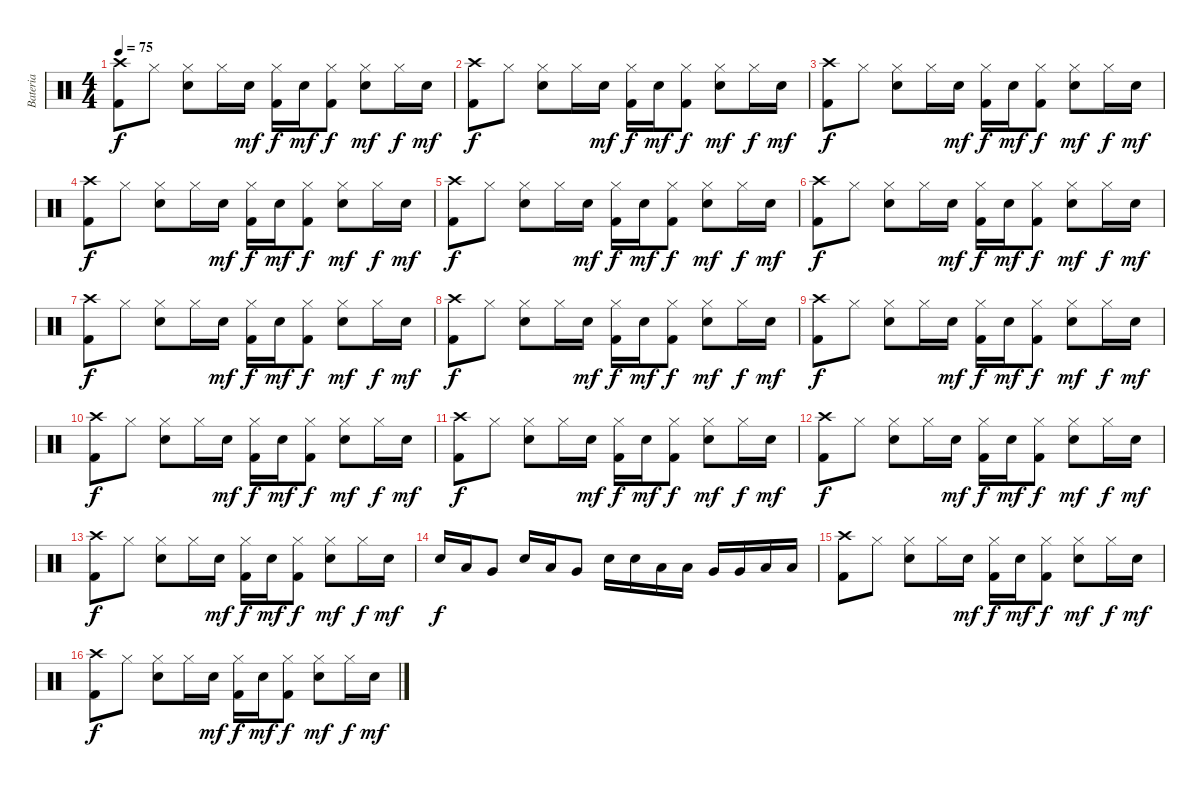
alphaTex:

\track ("Bateria" "Bateria") {instrument percussion}
\staff {score}
\articulation defaults
\ts (4 4)
\tempo 75
\clef neutral
\ks c
("Crash high (hit)" "Kick (hit) 2").8{dy f} "Hi-Hat (closed)".8 ("Hi-Hat (closed)" "Snare (hit) 2").8 "Hi-Hat (closed)".16 "Snare (hit) 2".16{dy mf} ("Hi-Hat (closed)" "Kick (hit) 2").16{dy f} "Snare (hit) 2".16{dy mf} ("Hi-Hat (closed)" "Kick (hit) 2").8{dy f} ("Hi-Hat (closed)" "Snare (hit) 2").8{dy mf} "Hi-Hat (closed)".16{dy f} "Snare (hit) 2".16{dy mf} |
("Crash high (hit)" "Kick (hit) 2").8{dy f} "Hi-Hat (closed)".8 ("Hi-Hat (closed)" "Snare (hit) 2").8 "Hi-Hat (closed)".16 "Snare (hit) 2".16{dy mf} ("Hi-Hat (closed)" "Kick (hit) 2").16{dy f} "Snare (hit) 2".16{dy mf} ("Hi-Hat (closed)" "Kick (hit) 2").8{dy f} ("Hi-Hat (closed)" "Snare (hit) 2").8{dy mf} "Hi-Hat (closed)".16{dy f} "Snare (hit) 2".16{dy mf} |
("Crash high (hit)" "Kick (hit) 2").8{dy f} "Hi-Hat (closed)".8 ("Hi-Hat (closed)" "Snare (hit) 2").8 "Hi-Hat (closed)".16 "Snare (hit) 2".16{dy mf} ("Hi-Hat (closed)" "Kick (hit) 2").16{dy f} "Snare (hit) 2".16{dy mf} ("Hi-Hat (closed)" "Kick (hit) 2").8{dy f} ("Hi-Hat (closed)" "Snare (hit) 2").8{dy mf} "Hi-Hat (closed)".16{dy f} "Snare (hit) 2".16{dy mf} |
("Crash high (hit)" "Kick (hit) 2").8{dy f} "Hi-Hat (closed)".8 ("Hi-Hat (closed)" "Snare (hit) 2").8 "Hi-Hat (closed)".16 "Snare (hit) 2".16{dy mf} ("Hi-Hat (closed)" "Kick (hit) 2").16{dy f} "Snare (hit) 2".16{dy mf} ("Hi-Hat (closed)" "Kick (hit) 2").8{dy f} ("Hi-Hat (closed)" "Snare (hit) 2").8{dy mf} "Hi-Hat (closed)".16{dy f} "Snare (hit) 2".16{dy mf} |
("Crash high (hit)" "Kick (hit) 2").8{dy f} "Hi-Hat (closed)".8 ("Hi-Hat (closed)" "Snare (hit) 2").8 "Hi-Hat (closed)".16 "Snare (hit) 2".16{dy mf} ("Hi-Hat (closed)" "Kick (hit) 2").16{dy f} "Snare (hit) 2".16{dy mf} ("Hi-Hat (closed)" "Kick (hit) 2").8{dy f} ("Hi-Hat (closed)" "Snare (hit) 2").8{dy mf} "Hi-Hat (closed)".16{dy f} "Snare (hit) 2".16{dy mf} |
("Crash high (hit)" "Kick (hit) 2").8{dy f} "Hi-Hat (closed)".8 ("Hi-Hat (closed)" "Snare (hit) 2").8 "Hi-Hat (closed)".16 "Snare (hit) 2".16{dy mf} ("Hi-Hat (closed)" "Kick (hit) 2").16{dy f} "Snare (hit) 2".16{dy mf} ("Hi-Hat (closed)" "Kick (hit) 2").8{dy f} ("Hi-Hat (closed)" "Snare (hit) 2").8{dy mf} "Hi-Hat (closed)".16{dy f} "Snare (hit) 2".16{dy mf} |
("Crash high (hit)" "Kick (hit) 2").8{dy f} "Hi-Hat (closed)".8 ("Hi-Hat (closed)" "Snare (hit) 2").8 "Hi-Hat (closed)".16 "Snare (hit) 2".16{dy mf} ("Hi-Hat (closed)" "Kick (hit) 2").16{dy f} "Snare (hit) 2".16{dy mf} ("Hi-Hat (closed)" "Kick (hit) 2").8{dy f} ("Hi-Hat (closed)" "Snare (hit) 2").8{dy mf} "Hi-Hat (closed)".16{dy f} "Snare (hit) 2".16{dy mf} |
("Crash high (hit)" "Kick (hit) 2").8{dy f} "Hi-Hat (closed)".8 ("Hi-Hat (closed)" "Snare (hit) 2").8 "Hi-Hat (closed)".16 "Snare (hit) 2".16{dy mf} ("Hi-Hat (closed)" "Kick (hit) 2").16{dy f} "Snare (hit) 2".16{dy mf} ("Hi-Hat (closed)" "Kick (hit) 2").8{dy f} ("Hi-Hat (closed)" "Snare (hit) 2").8{dy mf} "Hi-Hat (closed)".16{dy f} "Snare (hit) 2".16{dy mf} |
("Crash high (hit)" "Kick (hit) 2").8{dy f} "Hi-Hat (closed)".8 ("Hi-Hat (closed)" "Snare (hit) 2").8 "Hi-Hat (closed)".16 "Snare (hit) 2".16{dy mf} ("Hi-Hat (closed)" "Kick (hit) 2").16{dy f} "Snare (hit) 2".16{dy mf} ("Hi-Hat (closed)" "Kick (hit) 2").8{dy f} ("Hi-Hat (closed)" "Snare (hit) 2").8{dy mf} "Hi-Hat (closed)".16{dy f} "Snare (hit) 2".16{dy mf} |
("Crash high (hit)" "Kick (hit) 2").8{dy f} "Hi-Hat (closed)".8 ("Hi-Hat (closed)" "Snare (hit) 2").8 "Hi-Hat (closed)".16 "Snare (hit) 2".16{dy mf} ("Hi-Hat (closed)" "Kick (hit) 2").16{dy f} "Snare (hit) 2".16{dy mf} ("Hi-Hat (closed)" "Kick (hit) 2").8{dy f} ("Hi-Hat (closed)" "Snare (hit) 2").8{dy mf} "Hi-Hat (closed)".16{dy f} "Snare (hit) 2".16{dy mf} |
("Crash high (hit)" "Kick (hit) 2").8{dy f} "Hi-Hat (closed)".8 ("Hi-Hat (closed)" "Snare (hit) 2").8 "Hi-Hat (closed)".16 "Snare (hit) 2".16{dy mf} ("Hi-Hat (closed)" "Kick (hit) 2").16{dy f} "Snare (hit) 2".16{dy mf} ("Hi-Hat (closed)" "Kick (hit) 2").8{dy f} ("Hi-Hat (closed)" "Snare (hit) 2").8{dy mf} "Hi-Hat (closed)".16{dy f} "Snare (hit) 2".16{dy mf} |
("Crash high (hit)" "Kick (hit) 2").8{dy f} "Hi-Hat (closed)".8 ("Hi-Hat (closed)" "Snare (hit) 2").8 "Hi-Hat (closed)".16 "Snare (hit) 2".16{dy mf} ("Hi-Hat (closed)" "Kick (hit) 2").16{dy f} "Snare (hit) 2".16{dy mf} ("Hi-Hat (closed)" "Kick (hit) 2").8{dy f} ("Hi-Hat (closed)" "Snare (hit) 2").8{dy mf} "Hi-Hat (closed)".16{dy f} "Snare (hit) 2".16{dy mf} |
("Crash high (hit)" "Kick (hit) 2").8{dy f} "Hi-Hat (closed)".8 ("Hi-Hat (closed)" "Snare (hit) 2").8 "Hi-Hat (closed)".16 "Snare (hit) 2".16{dy mf} ("Hi-Hat (closed)" "Kick (hit) 2").16{dy f} "Snare (hit) 2".16{dy mf} ("Hi-Hat (closed)" "Kick (hit) 2").8{dy f} ("Hi-Hat (closed)" "Snare (hit) 2").8{dy mf} "Hi-Hat (closed)".16{dy f} "Snare (hit) 2".16{dy mf} |
"Snare (hit) 2".16{dy f} "Low Tom (hit)".16 "Very Low Tom (hit)".8 "Snare (hit) 2".16 "Low Tom (hit)".16 "Very Low Tom (hit)".8 "Snare (hit) 2".16 "Snare (hit) 2".16 "Low Tom (hit)".16 "Low Tom (hit)".16 "Very Low Tom (hit)".16 "Very Low Tom (hit)".16 "Low Floor Tom (hit)".16 "Low Floor Tom (hit)".16 |
("Crash high (hit)" "Kick (hit) 2").8 "Hi-Hat (closed)".8 ("Hi-Hat (closed)" "Snare (hit) 2").8 "Hi-Hat (closed)".16 "Snare (hit) 2".16{dy mf} ("Hi-Hat (closed)" "Kick (hit) 2").16{dy f} "Snare (hit) 2".16{dy mf} ("Hi-Hat (closed)" "Kick (hit) 2").8{dy f} ("Hi-Hat (closed)" "Snare (hit) 2").8{dy mf} "Hi-Hat (closed)".16{dy f} "Snare (hit) 2".16{dy mf} |
("Crash high (hit)" "Kick (hit) 2").8{dy f} "Hi-Hat (closed)".8 ("Hi-Hat (closed)" "Snare (hit) 2").8 "Hi-Hat (closed)".16 "Snare (hit) 2".16{dy mf} ("Hi-Hat (closed)" "Kick (hit) 2").16{dy f} "Snare (hit) 2".16{dy mf} ("Hi-Hat (closed)" "Kick (hit) 2").8{dy f} ("Hi-Hat (closed)" "Snare (hit) 2").8{dy mf} "Hi-Hat (closed)".16{dy f} "Snare (hit) 2".16{dy mf}
